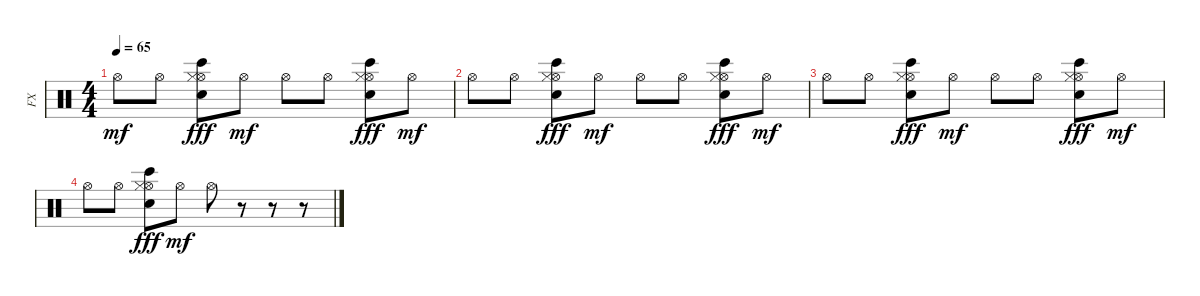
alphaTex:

\track ("FX" "FX") {instrument percussion}
\staff {score}
\articulation defaults
\ts (4 4)
\tempo 65
\clef neutral
\ks c "Hi-Hat (open)".8{dy mf} "Hi-Hat (open)".8
("Hi-Hat (open)" "Hi-Hat (closed)" "Bongo High (hit)" "Snare (hit) 2").8{dy fff} "Hi-Hat (open)".8{dy mf} "Hi-Hat (open)".8 "Hi-Hat (open)".8 ("Hi-Hat (open)" "Hi-Hat (closed)" "Bongo High (hit)" "Snare (hit) 2").8{dy fff} "Hi-Hat (open)".8{dy mf} |
"Hi-Hat (open)".8 "Hi-Hat (open)".8 ("Hi-Hat (open)" "Hi-Hat (closed)" "Bongo High (hit)" "Snare (hit) 2").8{dy fff} "Hi-Hat (open)".8{dy mf} "Hi-Hat (open)".8 "Hi-Hat (open)".8 ("Hi-Hat (open)" "Hi-Hat (closed)" "Bongo High (hit)" "Snare (hit) 2").8{dy fff} "Hi-Hat (open)".8{dy mf} |
"Hi-Hat (open)".8 "Hi-Hat (open)".8 ("Hi-Hat (open)" "Hi-Hat (closed)" "Bongo High (hit)" "Snare (hit) 2").8{dy fff} "Hi-Hat (open)".8{dy mf} "Hi-Hat (open)".8 "Hi-Hat (open)".8 ("Hi-Hat (open)" "Hi-Hat (closed)" "Bongo High (hit)" "Snare (hit) 2").8{dy fff} "Hi-Hat (open)".8{dy mf} |
"Hi-Hat (open)".8 "Hi-Hat (open)".8 ("Hi-Hat (open)" "Hi-Hat (closed)" "Bongo High (hit)" "Snare (hit) 2").8{dy fff} "Hi-Hat (open)".8{dy mf} "Hi-Hat (open)".8 r.8 r.8 r.8
